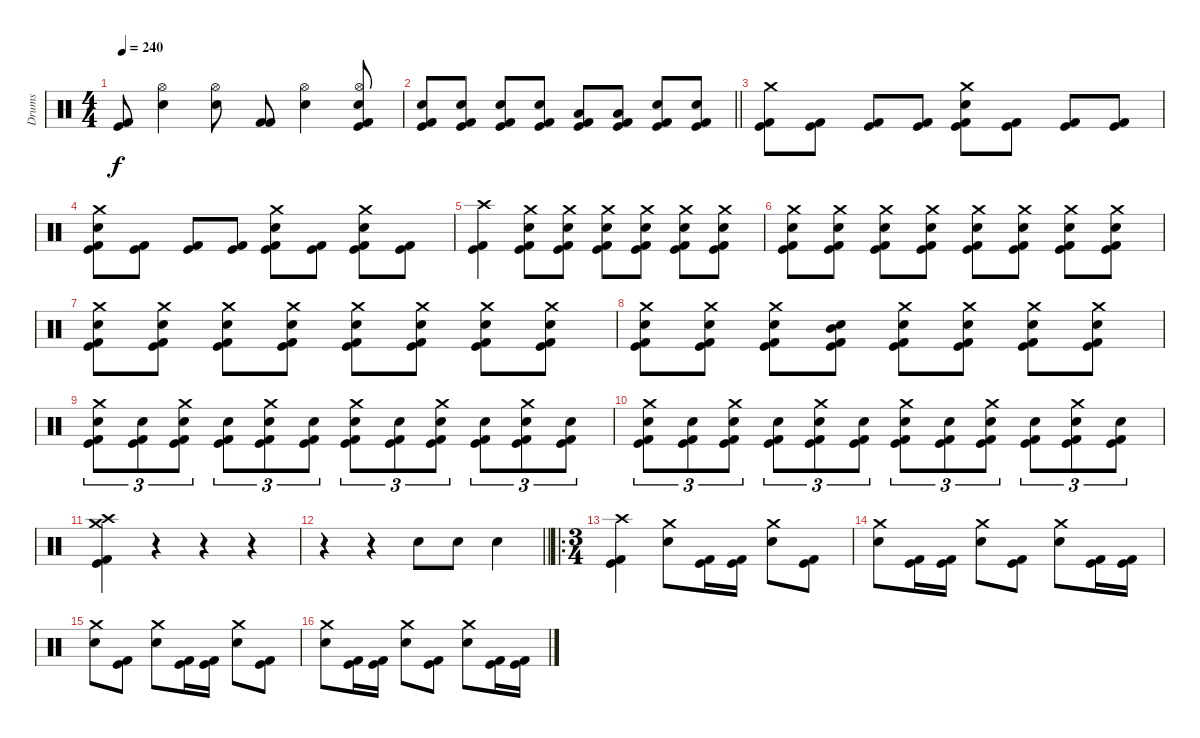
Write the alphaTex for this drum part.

\track ("Drums" "Drums") {instrument percussion}
\staff {score}
\articulation defaults
\ts (4 4)
\tempo 240
\clef neutral
\ks c
("Kick (hit)" "Kick (hit) 2").8{dy f} ("Hi-Hat (open)" "Electric Snare (hit)").4 ("Hi-Hat (open)" "Electric Snare (hit)").8 ("Kick (hit) 2" "Kick (hit) 2").8 ("Hi-Hat (open)" "Electric Snare (hit)").4 ("Hi-Hat (open)" "Electric Snare (hit)" "Kick (hit)" "Kick (hit) 2").8 |
\barLineRight lightlight
("Electric Snare (hit)" "Kick (hit)" "Kick (hit) 2").8 ("Electric Snare (hit)" "Kick (hit)" "Kick (hit) 2").8 ("Electric Snare (hit)" "Kick (hit)" "Kick (hit) 2").8 ("Electric Snare (hit)" "Kick (hit)" "Kick (hit) 2").8 ("Low Tom (hit)" "Kick (hit)" "Kick (hit) 2").8 ("Low Tom (hit)" "Kick (hit)" "Kick (hit) 2").8 ("Electric Snare (hit)" "Kick (hit)" "Kick (hit) 2").8 ("Electric Snare (hit)" "Kick (hit)" "Kick (hit) 2").8 |
\section ("" "")
("Crash medium (hit)" "Kick (hit)" "Kick (hit) 2").8 ("Kick (hit)" "Kick (hit) 2").8 ("Kick (hit)" "Kick (hit) 2").8 ("Kick (hit)" "Kick (hit) 2").8 ("Crash medium (hit)" "Electric Snare (hit)" "Kick (hit)" "Kick (hit) 2").8 ("Kick (hit)" "Kick (hit) 2").8 ("Kick (hit)" "Kick (hit) 2").8 ("Kick (hit)" "Kick (hit) 2").8 |
("Crash medium (hit)" "Electric Snare (hit)" "Kick (hit)" "Kick (hit) 2").8 ("Kick (hit)" "Kick (hit) 2").8 ("Kick (hit)" "Kick (hit) 2").8 ("Kick (hit)" "Kick (hit) 2").8 ("Crash medium (hit)" "Electric Snare (hit)" "Kick (hit)" "Kick (hit) 2").8 ("Kick (hit)" "Kick (hit) 2").8 ("Crash medium (hit)" "Electric Snare (hit)" "Kick (hit)" "Kick (hit) 2").8 ("Kick (hit)" "Kick (hit) 2").8 |
("Crash high (hit)" "Kick (hit)" "Kick (hit) 2").4 ("Crash medium (hit)" "Electric Snare (hit)" "Kick (hit)" "Kick (hit) 2").8 ("Crash medium (hit)" "Electric Snare (hit)" "Kick (hit)" "Kick (hit) 2").8 ("Crash medium (hit)" "Electric Snare (hit)" "Kick (hit)" "Kick (hit) 2").8 ("Crash medium (hit)" "Electric Snare (hit)" "Kick (hit)" "Kick (hit) 2").8 ("Crash medium (hit)" "Electric Snare (hit)" "Kick (hit)" "Kick (hit) 2").8 ("Crash medium (hit)" "Electric Snare (hit)" "Kick (hit)" "Kick (hit) 2").8 |
("Crash medium (hit)" "Electric Snare (hit)" "Kick (hit)" "Kick (hit) 2").8 ("Crash medium (hit)" "Electric Snare (hit)" "Kick (hit)" "Kick (hit) 2").8 ("Crash medium (hit)" "Electric Snare (hit)" "Kick (hit)" "Kick (hit) 2").8 ("Crash medium (hit)" "Electric Snare (hit)" "Kick (hit)" "Kick (hit) 2").8 ("Crash medium (hit)" "Electric Snare (hit)" "Kick (hit)" "Kick (hit) 2").8 ("Crash medium (hit)" "Electric Snare (hit)" "Kick (hit)" "Kick (hit) 2").8 ("Crash medium (hit)" "Electric Snare (hit)" "Kick (hit)" "Kick (hit) 2").8 ("Crash medium (hit)" "Electric Snare (hit)" "Kick (hit)" "Kick (hit) 2").8 |
("Crash medium (hit)" "Electric Snare (hit)" "Kick (hit)" "Kick (hit) 2").8 ("Crash medium (hit)" "Electric Snare (hit)" "Kick (hit)" "Kick (hit) 2").8 ("Crash medium (hit)" "Electric Snare (hit)" "Kick (hit)" "Kick (hit) 2").8 ("Crash medium (hit)" "Electric Snare (hit)" "Kick (hit)" "Kick (hit) 2").8 ("Crash medium (hit)" "Electric Snare (hit)" "Kick (hit)" "Kick (hit) 2").8 ("Crash medium (hit)" "Electric Snare (hit)" "Kick (hit)" "Kick (hit) 2").8 ("Crash medium (hit)" "Electric Snare (hit)" "Kick (hit)" "Kick (hit) 2").8 ("Crash medium (hit)" "Electric Snare (hit)" "Kick (hit)" "Kick (hit) 2").8 |
("Crash medium (hit)" "Electric Snare (hit)" "Kick (hit)" "Kick (hit) 2").8 ("Crash medium (hit)" "Electric Snare (hit)" "Kick (hit)" "Kick (hit) 2").8 ("Crash medium (hit)" "Electric Snare (hit)" "Kick (hit)" "Kick (hit) 2").8 ("Mid Tom (hit)" "Electric Snare (hit)" "Kick (hit)" "Kick (hit) 2").8 ("Crash medium (hit)" "Electric Snare (hit)" "Kick (hit)" "Kick (hit) 2").8 ("Crash medium (hit)" "Electric Snare (hit)" "Kick (hit)" "Kick (hit) 2").8 ("Crash medium (hit)" "Electric Snare (hit)" "Kick (hit)" "Kick (hit) 2").8 ("Crash medium (hit)" "Electric Snare (hit)" "Kick (hit)" "Kick (hit) 2").8 |
("Crash medium (hit)" "Electric Snare (hit)" "Kick (hit)" "Kick (hit) 2").8{tu (3 2)} ("Electric Snare (hit)" "Kick (hit)" "Kick (hit) 2").8{tu (3 2)} ("Crash medium (hit)" "Electric Snare (hit)" "Kick (hit)" "Kick (hit) 2").8{tu (3 2)} ("Electric Snare (hit)" "Kick (hit)" "Kick (hit) 2").8{tu (3 2)} ("Crash medium (hit)" "Electric Snare (hit)" "Kick (hit)" "Kick (hit) 2").8{tu (3 2)} ("Electric Snare (hit)" "Kick (hit)" "Kick (hit) 2").8{tu (3 2)} ("Crash medium (hit)" "Electric Snare (hit)" "Kick (hit)" "Kick (hit) 2").8{tu (3 2)} ("Electric Snare (hit)" "Kick (hit)" "Kick (hit) 2").8{tu (3 2)} ("Crash medium (hit)" "Electric Snare (hit)" "Kick (hit)" "Kick (hit) 2").8{tu (3 2)} ("Electric Snare (hit)" "Kick (hit)" "Kick (hit) 2").8{tu (3 2)} ("Crash medium (hit)" "Electric Snare (hit)" "Kick (hit)" "Kick (hit) 2").8{tu (3 2)} ("Electric Snare (hit)" "Kick (hit)" "Kick (hit) 2").8{tu (3 2)} |
("Crash medium (hit)" "Electric Snare (hit)" "Kick (hit)" "Kick (hit) 2").8{tu (3 2)} ("Electric Snare (hit)" "Kick (hit)" "Kick (hit) 2").8{tu (3 2)} ("Crash medium (hit)" "Electric Snare (hit)" "Kick (hit)" "Kick (hit) 2").8{tu (3 2)} ("Electric Snare (hit)" "Kick (hit)" "Kick (hit) 2").8{tu (3 2)} ("Crash medium (hit)" "Electric Snare (hit)" "Kick (hit)" "Kick (hit) 2").8{tu (3 2)} ("Electric Snare (hit)" "Kick (hit)" "Kick (hit) 2").8{tu (3 2)} ("Crash medium (hit)" "Electric Snare (hit)" "Kick (hit)" "Kick (hit) 2").8{tu (3 2)} ("Electric Snare (hit)" "Kick (hit)" "Kick (hit) 2").8{tu (3 2)} ("Crash medium (hit)" "Electric Snare (hit)" "Kick (hit)" "Kick (hit) 2").8{tu (3 2)} ("Electric Snare (hit)" "Kick (hit)" "Kick (hit) 2").8{tu (3 2)} ("Crash medium (hit)" "Electric Snare (hit)" "Kick (hit)" "Kick (hit) 2").8{tu (3 2)} ("Electric Snare (hit)" "Kick (hit)" "Kick (hit) 2").8{tu (3 2)} |
("Crash high (hit)" "Crash medium (hit)" "Kick (hit)" "Kick (hit) 2").4 r.4 r.4 r.4 |
\barLineRight lightlight
r.4 r.4 "Electric Snare (hit)".8 "Electric Snare (hit)".8 "Electric Snare (hit)".4 |
\ro
\ts (3 4)
\section ("" "")
("Crash high (hit)" "Kick (hit)" "Kick (hit) 2").4 ("Crash medium (hit)" "Electric Snare (hit)").8 ("Kick (hit)" "Kick (hit) 2").16 ("Kick (hit)" "Kick (hit) 2").16 ("Crash medium (hit)" "Electric Snare (hit)").8 ("Kick (hit)" "Kick (hit) 2").8 |
("Crash medium (hit)" "Electric Snare (hit)").8 ("Kick (hit)" "Kick (hit) 2").16 ("Kick (hit)" "Kick (hit) 2").16 ("Crash medium (hit)" "Electric Snare (hit)").8 ("Kick (hit)" "Kick (hit) 2").8 ("Crash medium (hit)" "Electric Snare (hit)").8 ("Kick (hit)" "Kick (hit) 2").16 ("Kick (hit)" "Kick (hit) 2").16 |
("Crash medium (hit)" "Electric Snare (hit)").8 ("Kick (hit)" "Kick (hit) 2").8 ("Crash medium (hit)" "Electric Snare (hit)").8 ("Kick (hit)" "Kick (hit) 2").16 ("Kick (hit)" "Kick (hit) 2").16 ("Crash medium (hit)" "Electric Snare (hit)").8 ("Kick (hit)" "Kick (hit) 2").8 |
("Crash medium (hit)" "Electric Snare (hit)").8 ("Kick (hit)" "Kick (hit) 2").16 ("Kick (hit)" "Kick (hit) 2").16 ("Crash medium (hit)" "Electric Snare (hit)").8 ("Kick (hit)" "Kick (hit) 2").8 ("Crash medium (hit)" "Electric Snare (hit)").8 ("Kick (hit)" "Kick (hit) 2").16 ("Kick (hit)" "Kick (hit) 2").16
